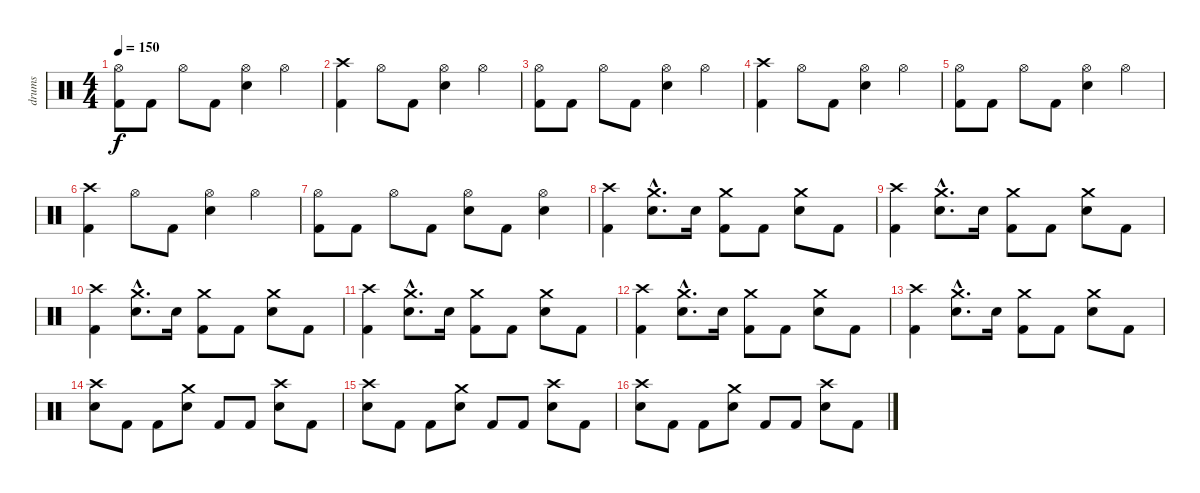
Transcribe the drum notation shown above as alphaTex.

\track ("drums" "drums") {instrument percussion}
\staff {score}
\articulation defaults
\ts (4 4)
\tempo 150
\clef neutral
\ks c
("Hi-Hat (open)" "Kick (hit) 2").8{dy f} "Kick (hit) 2".8 "Hi-Hat (open)".8 "Kick (hit) 2".8 ("Hi-Hat (open)" "Electric Snare (hit)").4 "Hi-Hat (open)".4 |
("Crash high (hit)" "Kick (hit) 2").4 "Hi-Hat (open)".8 "Kick (hit) 2".8 ("Hi-Hat (open)" "Electric Snare (hit)").4 "Hi-Hat (open)".4 |
("Hi-Hat (open)" "Kick (hit) 2").8 "Kick (hit) 2".8 "Hi-Hat (open)".8 "Kick (hit) 2".8 ("Hi-Hat (open)" "Electric Snare (hit)").4 "Hi-Hat (open)".4 |
("Crash high (hit)" "Kick (hit) 2").4 "Hi-Hat (open)".8 "Kick (hit) 2".8 ("Hi-Hat (open)" "Electric Snare (hit)").4 "Hi-Hat (open)".4 |
("Hi-Hat (open)" "Kick (hit) 2").8 "Kick (hit) 2".8 "Hi-Hat (open)".8 "Kick (hit) 2".8 ("Hi-Hat (open)" "Electric Snare (hit)").4 "Hi-Hat (open)".4 |
("Crash high (hit)" "Kick (hit) 2").4 "Hi-Hat (open)".8 "Kick (hit) 2".8 ("Hi-Hat (open)" "Electric Snare (hit)").4 "Hi-Hat (open)".4 |
("Hi-Hat (open)" "Kick (hit) 2").8 "Kick (hit) 2".8 "Hi-Hat (open)".8 "Kick (hit) 2".8 ("Hi-Hat (open)" "Electric Snare (hit)").8 "Kick (hit) 2".8 ("Hi-Hat (open)" "Electric Snare (hit)").4 |
("Crash high (hit)" "Kick (hit) 2").4 ("Crash medium (hit)"{hac} "Electric Snare (hit)"{hac}).8{d} "Electric Snare (hit)".16 ("Crash medium (hit)" "Kick (hit) 2").8 "Kick (hit) 2".8 ("Crash medium (hit)" "Electric Snare (hit)").8 "Kick (hit) 2".8 |
("Crash high (hit)" "Kick (hit) 2").4 ("Crash medium (hit)"{hac} "Electric Snare (hit)"{hac}).8{d} "Electric Snare (hit)".16 ("Crash medium (hit)" "Kick (hit) 2").8 "Kick (hit) 2".8 ("Crash medium (hit)" "Electric Snare (hit)").8 "Kick (hit) 2".8 |
("Crash high (hit)" "Kick (hit) 2").4 ("Crash medium (hit)"{hac} "Electric Snare (hit)"{hac}).8{d} "Electric Snare (hit)".16 ("Crash medium (hit)" "Kick (hit) 2").8 "Kick (hit) 2".8 ("Crash medium (hit)" "Electric Snare (hit)").8 "Kick (hit) 2".8 |
("Crash high (hit)" "Kick (hit) 2").4 ("Crash medium (hit)"{hac} "Electric Snare (hit)"{hac}).8{d} "Electric Snare (hit)".16 ("Crash medium (hit)" "Kick (hit) 2").8 "Kick (hit) 2".8 ("Crash medium (hit)" "Electric Snare (hit)").8 "Kick (hit) 2".8 |
("Crash high (hit)" "Kick (hit) 2").4 ("Crash medium (hit)"{hac} "Electric Snare (hit)"{hac}).8{d} "Electric Snare (hit)".16 ("Crash medium (hit)" "Kick (hit) 2").8 "Kick (hit) 2".8 ("Crash medium (hit)" "Electric Snare (hit)").8 "Kick (hit) 2".8 |
("Crash high (hit)" "Kick (hit) 2").4 ("Crash medium (hit)"{hac} "Electric Snare (hit)"{hac}).8{d} "Electric Snare (hit)".16 ("Crash medium (hit)" "Kick (hit) 2").8 "Kick (hit) 2".8 ("Crash medium (hit)" "Electric Snare (hit)").8 "Kick (hit) 2".8 |
("Crash high (hit)" "Electric Snare (hit)").8 "Kick (hit) 2".8 "Kick (hit) 2".8 ("Crash medium (hit)" "Electric Snare (hit)").8 "Kick (hit) 2".8 "Kick (hit) 2".8 ("Crash high (hit)" "Electric Snare (hit)").8 "Kick (hit) 2".8 |
("Crash high (hit)" "Electric Snare (hit)").8 "Kick (hit) 2".8 "Kick (hit) 2".8 ("Crash medium (hit)" "Electric Snare (hit)").8 "Kick (hit) 2".8 "Kick (hit) 2".8 ("Crash high (hit)" "Electric Snare (hit)").8 "Kick (hit) 2".8 |
("Crash high (hit)" "Electric Snare (hit)").8 "Kick (hit) 2".8 "Kick (hit) 2".8 ("Crash medium (hit)" "Electric Snare (hit)").8 "Kick (hit) 2".8 "Kick (hit) 2".8 ("Crash high (hit)" "Electric Snare (hit)").8 "Kick (hit) 2".8
